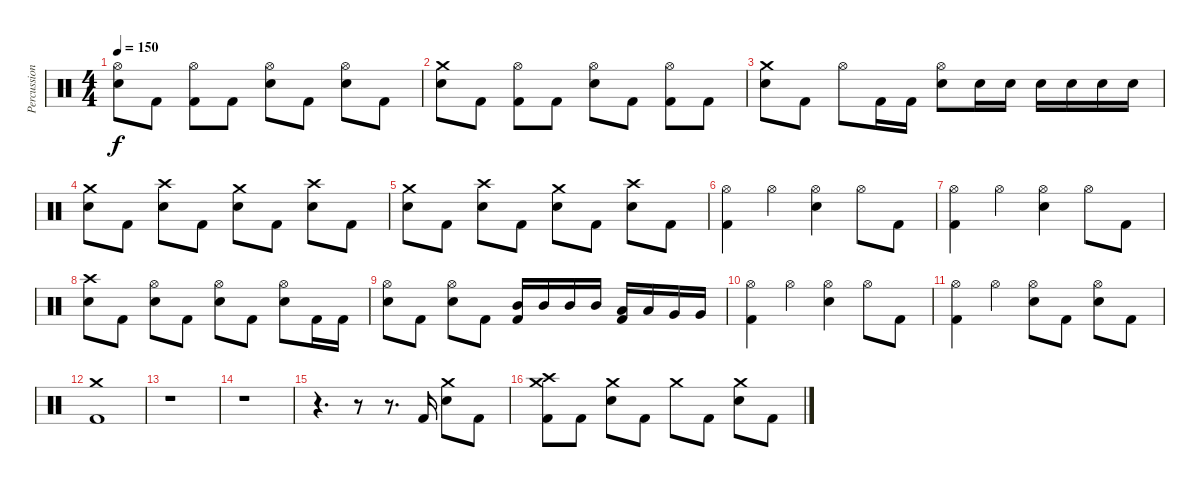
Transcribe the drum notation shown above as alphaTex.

\track ("Percussion" "Percussion") {instrument percussion}
\staff {score}
\articulation defaults
\ts (4 4)
\tempo 150
\clef neutral
\ks c
("Hi-Hat (open)" "Electric Snare (hit)").8{dy f} "Kick (hit) 2".8 ("Hi-Hat (open)" "Kick (hit) 2").8 "Kick (hit) 2".8 ("Hi-Hat (open)" "Electric Snare (hit)").8 "Kick (hit) 2".8 ("Hi-Hat (open)" "Electric Snare (hit)").8 "Kick (hit) 2".8 |
("Crash medium (hit)" "Electric Snare (hit)").8 "Kick (hit) 2".8 ("Hi-Hat (open)" "Kick (hit) 2").8 "Kick (hit) 2".8 ("Hi-Hat (open)" "Electric Snare (hit)").8 "Kick (hit) 2".8 ("Hi-Hat (open)" "Kick (hit) 2").8 "Kick (hit) 2".8 |
("Crash medium (hit)" "Electric Snare (hit)").8 "Kick (hit) 2".8 "Hi-Hat (open)".8 "Kick (hit) 2".16 "Kick (hit) 2".16 ("Hi-Hat (open)" "Electric Snare (hit)").8 "Electric Snare (hit)".16 "Electric Snare (hit)".16 "Electric Snare (hit)".16 "Electric Snare (hit)".16 "Electric Snare (hit)".16 "Electric Snare (hit)".16 |
("Crash medium (hit)" "Electric Snare (hit)").8 "Kick (hit) 2".8 ("Crash high (hit)" "Electric Snare (hit)").8 "Kick (hit) 2".8 ("Crash medium (hit)" "Electric Snare (hit)").8 "Kick (hit) 2".8 ("Crash high (hit)" "Electric Snare (hit)").8 "Kick (hit) 2".8 |
("Crash medium (hit)" "Electric Snare (hit)").8 "Kick (hit) 2".8 ("Crash high (hit)" "Electric Snare (hit)").8 "Kick (hit) 2".8 ("Crash medium (hit)" "Electric Snare (hit)").8 "Kick (hit) 2".8 ("Crash high (hit)" "Electric Snare (hit)").8 "Kick (hit) 2".8 |
("Hi-Hat (open)" "Kick (hit) 2").4 "Hi-Hat (open)".4 ("Hi-Hat (open)" "Electric Snare (hit)").4 "Hi-Hat (open)".8 "Kick (hit) 2".8 |
("Hi-Hat (open)" "Kick (hit) 2").4 "Hi-Hat (open)".4 ("Hi-Hat (open)" "Electric Snare (hit)").4 "Hi-Hat (open)".8 "Kick (hit) 2".8 |
("Crash high (hit)" "Electric Snare (hit)").8 "Kick (hit) 2".8 ("Hi-Hat (open)" "Electric Snare (hit)").8 "Kick (hit) 2".8 ("Hi-Hat (open)" "Electric Snare (hit)").8 "Kick (hit) 2".8 ("Hi-Hat (open)" "Electric Snare (hit)").8 "Kick (hit) 2".16 "Kick (hit) 2".16 |
("Hi-Hat (open)" "Electric Snare (hit)").8 "Kick (hit) 2".8 ("Hi-Hat (open)" "Electric Snare (hit)").8 "Kick (hit) 2".8 ("Mid Tom (hit)" "Kick (hit) 2").16 "Mid Tom (hit)".16 "Mid Tom (hit)".16 "Mid Tom (hit)".16 ("Low Tom (hit)" "Kick (hit) 2").16 "Low Tom (hit)".16 "Very Low Tom (hit)".16 "Very Low Tom (hit)".16 |
("Hi-Hat (open)" "Kick (hit) 2").4 "Hi-Hat (open)".4 ("Hi-Hat (open)" "Electric Snare (hit)").4 "Hi-Hat (open)".8 "Kick (hit) 2".8 |
("Hi-Hat (open)" "Kick (hit) 2").4 "Hi-Hat (open)".4 ("Hi-Hat (open)" "Electric Snare (hit)").8 "Kick (hit) 2".8 ("Hi-Hat (open)" "Electric Snare (hit)").8 "Kick (hit) 2".8 |
("Crash medium (hit)" "Kick (hit) 2").1 |
r.1 |
r.1 |
r.4{d} r.8 r.8{d} "Kick (hit) 2".16 ("Crash medium (hit)" "Electric Snare (hit)").8 "Kick (hit) 2".8 |
("Crash high (hit)" "Crash medium (hit)" "Kick (hit) 2").8 "Kick (hit) 2".8 ("Crash medium (hit)" "Electric Snare (hit)").8 "Kick (hit) 2".8 "Crash medium (hit)".8 "Kick (hit) 2".8 ("Crash medium (hit)" "Electric Snare (hit)").8 "Kick (hit) 2".8
